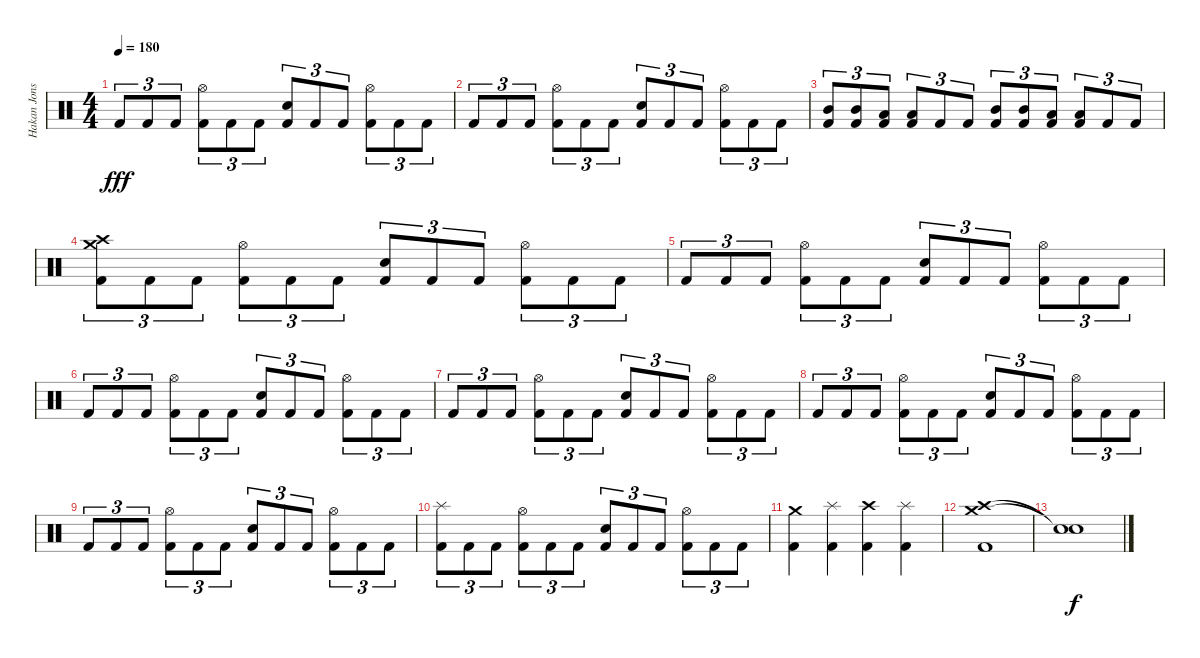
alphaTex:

\track ("Hakan Jonsson" "Hakan Jons") {instrument percussion}
\staff {score}
\articulation defaults
\ts (4 4)
\tempo 180
\clef neutral
\ks c "Kick (hit) 2".8{tu (3 2) dy fff} "Kick (hit) 2".8{tu (3 2)} "Kick (hit) 2".8{tu (3 2)}
("Hi-Hat (open)" "Kick (hit) 2").8{tu (3 2)} "Kick (hit) 2".8{tu (3 2)} "Kick (hit) 2".8{tu (3 2)} ("Electric Snare (hit)" "Kick (hit) 2").8{tu (3 2)} "Kick (hit) 2".8{tu (3 2)} "Kick (hit) 2".8{tu (3 2)} ("Hi-Hat (open)" "Kick (hit) 2").8{tu (3 2)} "Kick (hit) 2".8{tu (3 2)} "Kick (hit) 2".8{tu (3 2)} |
"Kick (hit) 2".8{tu (3 2)} "Kick (hit) 2".8{tu (3 2)} "Kick (hit) 2".8{tu (3 2)} ("Hi-Hat (open)" "Kick (hit) 2").8{tu (3 2)} "Kick (hit) 2".8{tu (3 2)} "Kick (hit) 2".8{tu (3 2)} ("Electric Snare (hit)" "Kick (hit) 2").8{tu (3 2)} "Kick (hit) 2".8{tu (3 2)} "Kick (hit) 2".8{tu (3 2)} ("Hi-Hat (open)" "Kick (hit) 2").8{tu (3 2)} "Kick (hit) 2".8{tu (3 2)} "Kick (hit) 2".8{tu (3 2)} |
("Mid Tom (hit)" "Kick (hit) 2").8{tu (3 2)} ("Mid Tom (hit)" "Kick (hit) 2").8{tu (3 2)} ("Low Tom (hit)" "Kick (hit) 2").8{tu (3 2)} ("Low Tom (hit)" "Kick (hit) 2").8{tu (3 2)} "Kick (hit) 2".8{tu (3 2)} "Kick (hit) 2".8{tu (3 2)} ("Mid Tom (hit)" "Kick (hit) 2").8{tu (3 2)} ("Mid Tom (hit)" "Kick (hit) 2").8{tu (3 2)} ("Low Tom (hit)" "Kick (hit) 2").8{tu (3 2)} ("Low Tom (hit)" "Kick (hit) 2").8{tu (3 2)} "Kick (hit) 2".8{tu (3 2)} "Kick (hit) 2".8{tu (3 2)} |
("Crash high (hit)" "Crash medium (hit)" "Kick (hit) 2").8{tu (3 2)} "Kick (hit) 2".8{tu (3 2)} "Kick (hit) 2".8{tu (3 2)} ("Hi-Hat (open)" "Kick (hit) 2").8{tu (3 2)} "Kick (hit) 2".8{tu (3 2)} "Kick (hit) 2".8{tu (3 2)} ("Electric Snare (hit)" "Kick (hit) 2").8{tu (3 2)} "Kick (hit) 2".8{tu (3 2)} "Kick (hit) 2".8{tu (3 2)} ("Hi-Hat (open)" "Kick (hit) 2").8{tu (3 2)} "Kick (hit) 2".8{tu (3 2)} "Kick (hit) 2".8{tu (3 2)} |
"Kick (hit) 2".8{tu (3 2)} "Kick (hit) 2".8{tu (3 2)} "Kick (hit) 2".8{tu (3 2)} ("Hi-Hat (open)" "Kick (hit) 2").8{tu (3 2)} "Kick (hit) 2".8{tu (3 2)} "Kick (hit) 2".8{tu (3 2)} ("Electric Snare (hit)" "Kick (hit) 2").8{tu (3 2)} "Kick (hit) 2".8{tu (3 2)} "Kick (hit) 2".8{tu (3 2)} ("Hi-Hat (open)" "Kick (hit) 2").8{tu (3 2)} "Kick (hit) 2".8{tu (3 2)} "Kick (hit) 2".8{tu (3 2)} |
"Kick (hit) 2".8{tu (3 2)} "Kick (hit) 2".8{tu (3 2)} "Kick (hit) 2".8{tu (3 2)} ("Hi-Hat (open)" "Kick (hit) 2").8{tu (3 2)} "Kick (hit) 2".8{tu (3 2)} "Kick (hit) 2".8{tu (3 2)} ("Electric Snare (hit)" "Kick (hit) 2").8{tu (3 2)} "Kick (hit) 2".8{tu (3 2)} "Kick (hit) 2".8{tu (3 2)} ("Hi-Hat (open)" "Kick (hit) 2").8{tu (3 2)} "Kick (hit) 2".8{tu (3 2)} "Kick (hit) 2".8{tu (3 2)} |
"Kick (hit) 2".8{tu (3 2)} "Kick (hit) 2".8{tu (3 2)} "Kick (hit) 2".8{tu (3 2)} ("Hi-Hat (open)" "Kick (hit) 2").8{tu (3 2)} "Kick (hit) 2".8{tu (3 2)} "Kick (hit) 2".8{tu (3 2)} ("Electric Snare (hit)" "Kick (hit) 2").8{tu (3 2)} "Kick (hit) 2".8{tu (3 2)} "Kick (hit) 2".8{tu (3 2)} ("Hi-Hat (open)" "Kick (hit) 2").8{tu (3 2)} "Kick (hit) 2".8{tu (3 2)} "Kick (hit) 2".8{tu (3 2)} |
"Kick (hit) 2".8{tu (3 2)} "Kick (hit) 2".8{tu (3 2)} "Kick (hit) 2".8{tu (3 2)} ("Hi-Hat (open)" "Kick (hit) 2").8{tu (3 2)} "Kick (hit) 2".8{tu (3 2)} "Kick (hit) 2".8{tu (3 2)} ("Electric Snare (hit)" "Kick (hit) 2").8{tu (3 2)} "Kick (hit) 2".8{tu (3 2)} "Kick (hit) 2".8{tu (3 2)} ("Hi-Hat (open)" "Kick (hit) 2").8{tu (3 2)} "Kick (hit) 2".8{tu (3 2)} "Kick (hit) 2".8{tu (3 2)} |
"Kick (hit) 2".8{tu (3 2)} "Kick (hit) 2".8{tu (3 2)} "Kick (hit) 2".8{tu (3 2)} ("Hi-Hat (open)" "Kick (hit) 2").8{tu (3 2)} "Kick (hit) 2".8{tu (3 2)} "Kick (hit) 2".8{tu (3 2)} ("Electric Snare (hit)" "Kick (hit) 2").8{tu (3 2)} "Kick (hit) 2".8{tu (3 2)} "Kick (hit) 2".8{tu (3 2)} ("Hi-Hat (open)" "Kick (hit) 2").8{tu (3 2)} "Kick (hit) 2".8{tu (3 2)} "Kick (hit) 2".8{tu (3 2)} |
("Splash (hit)" "Kick (hit) 2").8{tu (3 2)} "Kick (hit) 2".8{tu (3 2)} "Kick (hit) 2".8{tu (3 2)} ("Hi-Hat (open)" "Kick (hit) 2").8{tu (3 2)} "Kick (hit) 2".8{tu (3 2)} "Kick (hit) 2".8{tu (3 2)} ("Electric Snare (hit)" "Kick (hit) 2").8{tu (3 2)} "Kick (hit) 2".8{tu (3 2)} "Kick (hit) 2".8{tu (3 2)} ("Hi-Hat (open)" "Kick (hit) 2").8{tu (3 2)} "Kick (hit) 2".8{tu (3 2)} "Kick (hit) 2".8{tu (3 2)} |
("Crash medium (hit)" "Kick (hit) 2").4 ("Splash (hit)" "Kick (hit) 2").4 ("Crash high (hit)" "Kick (hit) 2").4 ("Splash (hit)" "Kick (hit) 2").4 |
("Crash high (hit)" "Crash medium (hit)" "Kick (hit) 2").1 |
("Snare (hit)"{t} "Snare (hit)"{t}).1{dy f}
